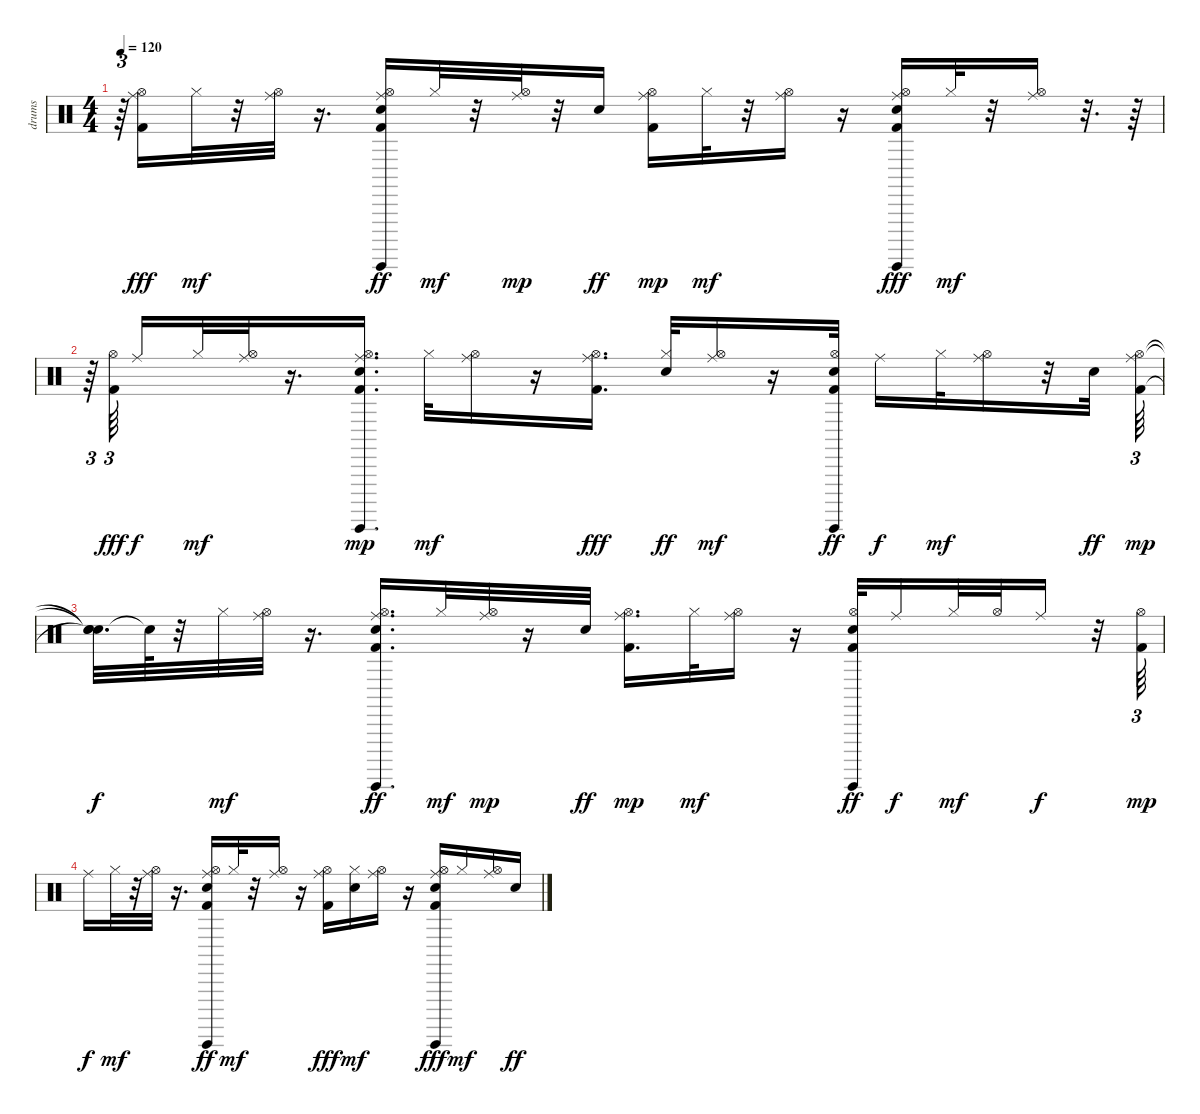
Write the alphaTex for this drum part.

\track ("drums                               " "drums     ") {instrument percussion}
\staff {score}
\articulation defaults
\ts (4 4)
\tempo 120
\clef neutral
\ks c
r.64{tu (3 2) dy fff} ("Hi-Hat (open)" "Kick (hit) 2" "Ride (middle)").16 "Hi-Hat (closed)".32{dy mf} r.32 ("Ride (middle)" "Hi-Hat (open)").32 r.16{d} ("Kick (hit) 2" "Hi-Hat (open)" "Electric Snare (hit)" "Guiro (hit)" "Ride (middle)").16{dy ff} "Hi-Hat (closed)".32{dy mf} r.32 ("Ride (middle)" "Hi-Hat (open)").32{dy mp} r.32 "Electric Snare (hit)".16{dy ff} ("Kick (hit) 2" "Hi-Hat (open)" "Ride (middle)").16{dy mp} "Hi-Hat (closed)".32{dy mf} r.32 ("Ride (middle)" "Hi-Hat (open)").16 r.16 ("Hi-Hat (open)" "Electric Snare (hit)" "Guiro (hit)" "Kick (hit) 2" "Ride (middle)").16{dy fff} "Hi-Hat (closed)".32{dy mf} r.32 ("Hi-Hat (open)" "Ride (middle)").16 r.32{d} r.64 |
r.64{tu (3 2)} ("Hi-Hat (open)" "Kick (hit) 2").64{tu (3 2) dy fff beam splitsecondary} "Ride (middle)".16{dy f} "Hi-Hat (closed)".32{dy mf} ("Hi-Hat (open)" "Ride (middle)").32 r.16{d} ("Electric Snare (hit)" "Guiro (hit)" "Kick (hit) 2" "Hi-Hat (open)" "Ride (middle)").16{d dy mp} "Hi-Hat (closed)".32{dy mf} ("Hi-Hat (open)" "Ride (middle)").16 r.16 ("Ride (middle)" "Hi-Hat (open)" "Kick (hit) 2").16{d dy fff} ("Hi-Hat (closed)" "Electric Snare (hit)").32{dy ff} ("Hi-Hat (open)" "Ride (middle)").16{dy mf} r.16 ("Hi-Hat (open)" "Guiro (hit)" "Kick (hit) 2" "Electric Snare (hit)").32{dy ff} "Ride (middle)".16{dy f} "Hi-Hat (closed)".32{dy mf} ("Hi-Hat (open)" "Ride (middle)").16 r.32 "Electric Snare (hit)".32{dy ff} ("Kick (hit) 2" "Ride (middle)" "Hi-Hat (open)").64{tu (3 2) dy mp} |
("Snare (hit)"{t} "Snare (hit)"{t} "Snare (hit)"{t}).32{d dy f} "Snare (hit)"{t}.64 r.32 "Hi-Hat (closed)".32{dy mf} ("Ride (middle)" "Hi-Hat (open)").32 r.16{d} ("Kick (hit) 2" "Hi-Hat (open)" "Guiro (hit)" "Electric Snare (hit)" "Ride (middle)").16{d dy ff} "Hi-Hat (closed)".32{dy mf} ("Ride (middle)" "Hi-Hat (open)").32{dy mp} r.16 "Electric Snare (hit)".32{dy ff} ("Kick (hit) 2" "Hi-Hat (open)" "Ride (middle)").16{d dy mp} "Hi-Hat (closed)".32{dy mf} ("Ride (middle)" "Hi-Hat (open)").16 r.16 ("Guiro (hit)" "Kick (hit) 2" "Hi-Hat (open)" "Electric Snare (hit)").32{dy ff} "Ride (middle)".16{dy f} "Hi-Hat (closed)".32{dy mf} "Hi-Hat (open)".32 "Ride (middle)".16{dy f} r.32 ("Kick (hit) 2" "Hi-Hat (open)").64{tu (3 2) dy mp} |
"Ride (middle)".16{dy f} "Hi-Hat (closed)".32{dy mf} r.32 ("Hi-Hat (open)" "Ride (middle)").32 r.16{d} ("Hi-Hat (open)" "Kick (hit) 2" "Guiro (hit)" "Electric Snare (hit)" "Ride (middle)").16{dy ff} "Hi-Hat (closed)".32{dy mf} r.32 ("Hi-Hat (open)" "Ride (middle)").16 r.16 ("Ride (middle)" "Hi-Hat (open)" "Kick (hit) 2").16{dy fff} ("Electric Snare (hit)" "Hi-Hat (closed)").16{dy mf} ("Hi-Hat (open)" "Ride (middle)").16 r.16 ("Electric Snare (hit)" "Hi-Hat (open)" "Guiro (hit)" "Kick (hit) 2" "Ride (middle)").16{dy fff} "Hi-Hat (closed)".16{dy mf} ("Hi-Hat (open)" "Ride (middle)").16 "Electric Snare (hit)".16{dy ff}
